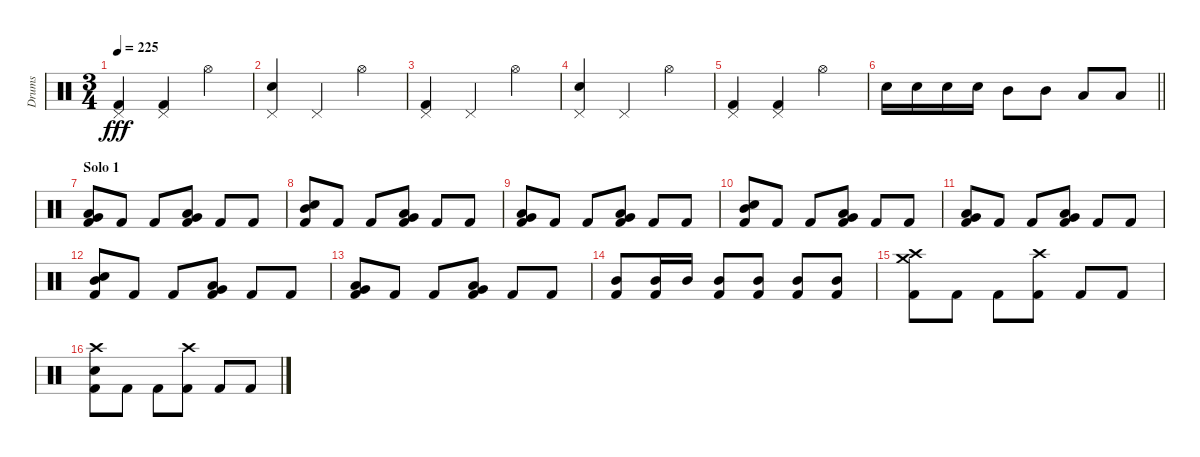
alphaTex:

\track ("Drums" "Drums") {instrument percussion}
\staff {score}
\articulation defaults
\ts (3 4)
\tempo 225
\clef neutral
\ks c
("Pedal Hi-Hat (hit)" "Kick (hit) 2").4{dy fff} ("Pedal Hi-Hat (hit)" "Kick (hit) 2").4 "Hi-Hat (open)".4 |
("Pedal Hi-Hat (hit)" "Electric Snare (hit)").4 "Pedal Hi-Hat (hit)".4 "Hi-Hat (open)".4 |
("Pedal Hi-Hat (hit)" "Kick (hit) 2").4 "Pedal Hi-Hat (hit)".4 "Hi-Hat (open)".4 |
("Pedal Hi-Hat (hit)" "Electric Snare (hit)").4 "Pedal Hi-Hat (hit)".4 "Hi-Hat (open)".4 |
("Pedal Hi-Hat (hit)" "Kick (hit) 2").4 ("Pedal Hi-Hat (hit)" "Kick (hit) 2").4 "Hi-Hat (open)".4 |
\barLineRight lightlight "Electric Snare (hit)".16 "Electric Snare (hit)".16 "Electric Snare (hit)".16 "Electric Snare (hit)".16 "Mid Tom (hit)".8 "Mid Tom (hit)".8 "Low Tom (hit)".8 "Low Tom (hit)".8
|
\section ("" "Solo 1")
("Very Low Tom (hit)" "Low Floor Tom (hit)" "Kick (hit) 2").8 "Kick (hit) 2".8 "Kick (hit) 2".8 ("Low Tom (hit)" "Very Low Tom (hit)" "Kick (hit) 2").8 "Kick (hit) 2".8 "Kick (hit) 2".8 |
("Mid Tom (hit)" "Electric Snare (hit)" "Kick (hit) 2").8 "Kick (hit) 2".8 "Kick (hit) 2".8 ("Low Tom (hit)" "Very Low Tom (hit)" "Kick (hit) 2").8 "Kick (hit) 2".8 "Kick (hit) 2".8 |
("Very Low Tom (hit)" "Low Floor Tom (hit)" "Kick (hit) 2").8 "Kick (hit) 2".8 "Kick (hit) 2".8 ("Low Tom (hit)" "Very Low Tom (hit)" "Kick (hit) 2").8 "Kick (hit) 2".8 "Kick (hit) 2".8 |
("Mid Tom (hit)" "Electric Snare (hit)" "Kick (hit) 2").8 "Kick (hit) 2".8 "Kick (hit) 2".8 ("Low Tom (hit)" "Very Low Tom (hit)" "Kick (hit) 2").8 "Kick (hit) 2".8 "Kick (hit) 2".8 |
("Very Low Tom (hit)" "Low Floor Tom (hit)" "Kick (hit) 2").8 "Kick (hit) 2".8 "Kick (hit) 2".8 ("Low Tom (hit)" "Very Low Tom (hit)" "Kick (hit) 2").8 "Kick (hit) 2".8 "Kick (hit) 2".8 |
("Mid Tom (hit)" "Electric Snare (hit)" "Kick (hit) 2").8 "Kick (hit) 2".8 "Kick (hit) 2".8 ("Low Tom (hit)" "Very Low Tom (hit)" "Kick (hit) 2").8 "Kick (hit) 2".8 "Kick (hit) 2".8 |
("Very Low Tom (hit)" "Low Floor Tom (hit)" "Kick (hit) 2").8 "Kick (hit) 2".8 "Kick (hit) 2".8 ("Low Tom (hit)" "Very Low Tom (hit)" "Kick (hit) 2").8 "Kick (hit) 2".8 "Kick (hit) 2".8 |
("Mid Tom (hit)" "Kick (hit) 2").8 ("Mid Tom (hit)" "Kick (hit) 2").16 "Mid Tom (hit)".16 ("Mid Tom (hit)" "Kick (hit) 2").8 ("Mid Tom (hit)" "Kick (hit) 2").8 ("Mid Tom (hit)" "Kick (hit) 2").8 ("Mid Tom (hit)" "Kick (hit) 2").8 |
("Crash high (hit)" "Crash medium (hit)" "Kick (hit) 2").8 "Kick (hit) 2".8 "Kick (hit) 2".8 ("Crash high (hit)" "Kick (hit) 2").8 "Kick (hit) 2".8 "Kick (hit) 2".8 |
("Crash high (hit)" "Electric Snare (hit)" "Kick (hit) 2").8 "Kick (hit) 2".8 "Kick (hit) 2".8 ("Crash high (hit)" "Kick (hit) 2").8 "Kick (hit) 2".8 "Kick (hit) 2".8
